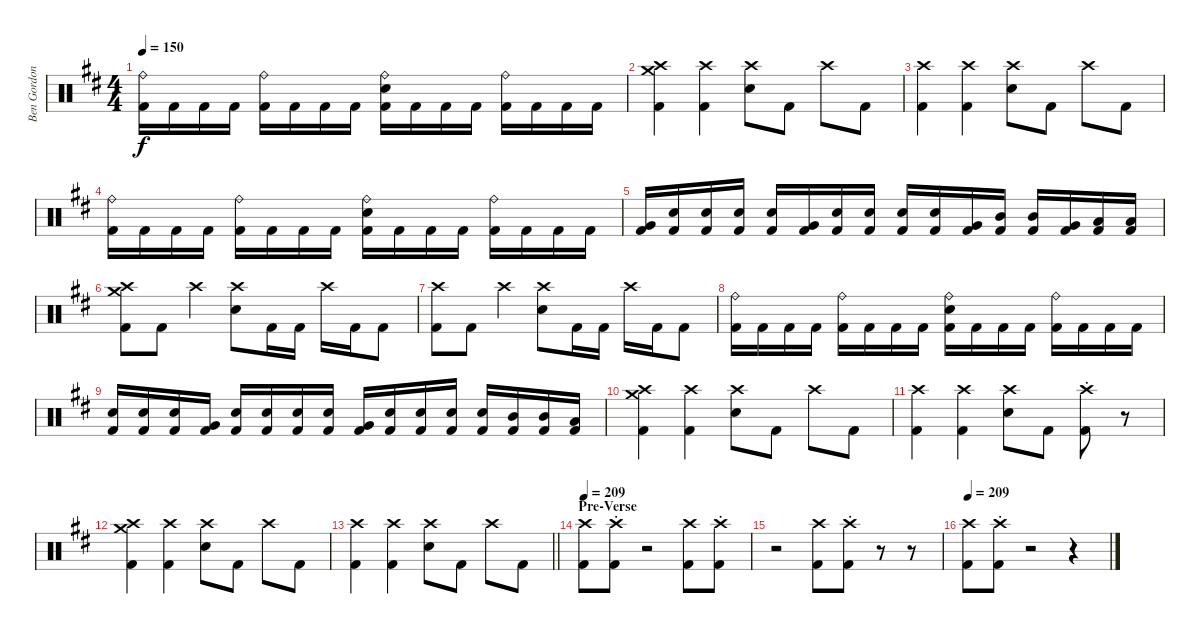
\track ("Ben Gordon" "Ben Gordon") {instrument percussion}
\staff {score}
\articulation defaults
\ts (4 4)
\tempo 150
\clef neutral
\ks d
("Ride (bell)" "Kick (hit) 2").16{dy f} "Kick (hit) 2".16 "Kick (hit) 2".16 "Kick (hit) 2".16 ("Ride (bell)" "Kick (hit) 2").16 "Kick (hit) 2".16 "Kick (hit) 2".16 "Kick (hit) 2".16 ("Ride (bell)" "Electric Snare (hit)" "Kick (hit) 2").16 "Kick (hit) 2".16 "Kick (hit) 2".16 "Kick (hit) 2".16 ("Ride (bell)" "Kick (hit) 2").16 "Kick (hit) 2".16 "Kick (hit) 2".16 "Kick (hit) 2".16 |
("Crash medium (hit)" "Crash high (hit)" "Kick (hit) 2").4 ("Crash high (hit)" "Kick (hit) 2").4 ("Crash high (hit)" "Electric Snare (hit)").8 "Kick (hit) 2".8 "Crash high (hit)".8 "Kick (hit) 2".8 |
("Crash high (hit)" "Kick (hit) 2").4 ("Crash high (hit)" "Kick (hit) 2").4 ("Crash high (hit)" "Electric Snare (hit)").8 "Kick (hit) 2".8 "Crash high (hit)".8 "Kick (hit) 2".8 |
("Ride (bell)" "Kick (hit) 2").16 "Kick (hit) 2".16 "Kick (hit) 2".16 "Kick (hit) 2".16 ("Ride (bell)" "Kick (hit) 2").16 "Kick (hit) 2".16 "Kick (hit) 2".16 "Kick (hit) 2".16 ("Ride (bell)" "Electric Snare (hit)" "Kick (hit) 2").16 "Kick (hit) 2".16 "Kick (hit) 2".16 "Kick (hit) 2".16 ("Ride (bell)" "Kick (hit) 2").16 "Kick (hit) 2".16 "Kick (hit) 2".16 "Kick (hit) 2".16 |
("Very Low Tom (hit)" "Kick (hit) 2").16 ("Electric Snare (hit)" "Kick (hit) 2").16 ("Electric Snare (hit)" "Kick (hit) 2").16 ("Electric Snare (hit)" "Kick (hit) 2").16 ("Electric Snare (hit)" "Kick (hit) 2").16 ("Very Low Tom (hit)" "Kick (hit) 2").16 ("Electric Snare (hit)" "Kick (hit) 2").16 ("Electric Snare (hit)" "Kick (hit) 2").16 ("Electric Snare (hit)" "Kick (hit) 2").16 ("Electric Snare (hit)" "Kick (hit) 2").16 ("Very Low Tom (hit)" "Kick (hit) 2").16 ("Mid Tom (hit)" "Kick (hit) 2").16 ("Mid Tom (hit)" "Kick (hit) 2").16 ("Very Low Tom (hit)" "Kick (hit) 2").16 ("Low Tom (hit)" "Kick (hit) 2").16 ("Low Tom (hit)" "Kick (hit) 2").16 |
("Crash medium (hit)" "Crash high (hit)" "Kick (hit) 2").8 "Kick (hit) 2".8 "Crash high (hit)".4 ("Crash high (hit)" "Electric Snare (hit)").8 "Kick (hit) 2".16 "Kick (hit) 2".16 "Crash high (hit)".16 "Kick (hit) 2".16 "Kick (hit) 2".8 |
("Crash high (hit)" "Kick (hit) 2").8 "Kick (hit) 2".8 "Crash high (hit)".4 ("Crash high (hit)" "Electric Snare (hit)").8 "Kick (hit) 2".16 "Kick (hit) 2".16 "Crash high (hit)".16 "Kick (hit) 2".16 "Kick (hit) 2".8 |
("Ride (bell)" "Kick (hit) 2").16 "Kick (hit) 2".16 "Kick (hit) 2".16 "Kick (hit) 2".16 ("Ride (bell)" "Kick (hit) 2").16 "Kick (hit) 2".16 "Kick (hit) 2".16 "Kick (hit) 2".16 ("Ride (bell)" "Electric Snare (hit)" "Kick (hit) 2").16 "Kick (hit) 2".16 "Kick (hit) 2".16 "Kick (hit) 2".16 ("Ride (bell)" "Kick (hit) 2").16 "Kick (hit) 2".16 "Kick (hit) 2".16 "Kick (hit) 2".16 |
("Electric Snare (hit)" "Kick (hit) 2").16 ("Electric Snare (hit)" "Kick (hit) 2").16 ("Electric Snare (hit)" "Kick (hit) 2").16 ("Very Low Tom (hit)" "Kick (hit) 2").16 ("Electric Snare (hit)" "Kick (hit) 2").16 ("Electric Snare (hit)" "Kick (hit) 2").16 ("Electric Snare (hit)" "Kick (hit) 2").16 ("Electric Snare (hit)" "Kick (hit) 2").16 ("Very Low Tom (hit)" "Kick (hit) 2").16 ("Electric Snare (hit)" "Kick (hit) 2").16 ("Electric Snare (hit)" "Kick (hit) 2").16 ("Electric Snare (hit)" "Kick (hit) 2").16 ("Electric Snare (hit)" "Kick (hit) 2").16 ("Mid Tom (hit)" "Kick (hit) 2").16 ("Mid Tom (hit)" "Kick (hit) 2").16 ("Low Tom (hit)" "Kick (hit) 2").16 |
("Crash medium (hit)" "Crash high (hit)" "Kick (hit) 2").4 ("Crash high (hit)" "Kick (hit) 2").4 ("Crash high (hit)" "Electric Snare (hit)").8 "Kick (hit) 2".8 "Crash high (hit)".8 "Kick (hit) 2".8 |
("Crash high (hit)" "Kick (hit) 2").4 ("Crash high (hit)" "Kick (hit) 2").4 ("Crash high (hit)" "Electric Snare (hit)").8 "Kick (hit) 2".8 ("Crash high (hit)"{st} "Kick (hit) 2").8 r.8{volume 0} |
("Crash medium (hit)" "Crash high (hit)" "Kick (hit) 2").4{volume 14} ("Crash high (hit)" "Kick (hit) 2").4 ("Crash high (hit)" "Electric Snare (hit)").8 "Kick (hit) 2".8 "Crash high (hit)".8 "Kick (hit) 2".8 |
\barLineRight lightlight
("Crash high (hit)" "Kick (hit) 2").4 ("Crash high (hit)" "Kick (hit) 2").4 ("Crash high (hit)" "Electric Snare (hit)").8 "Kick (hit) 2".8 "Crash high (hit)".8 "Kick (hit) 2".8 |
\section ("" "Pre-Verse")
\tempo 209
("Crash high (hit)" "Kick (hit) 2").8 ("Crash high (hit)"{st} "Kick (hit) 2").8 r.2{volume 0} ("Crash high (hit)" "Kick (hit) 2").8{volume 14} ("Crash high (hit)"{st} "Kick (hit) 2").8 |
r.2{volume 0} ("Crash high (hit)" "Kick (hit) 2").8{volume 14} ("Crash high (hit)"{st} "Kick (hit) 2").8 r.8 r.8 |
\tempo 209
("Crash high (hit)" "Kick (hit) 2").8 ("Crash high (hit)"{st} "Kick (hit) 2").8 r.2 r.4
